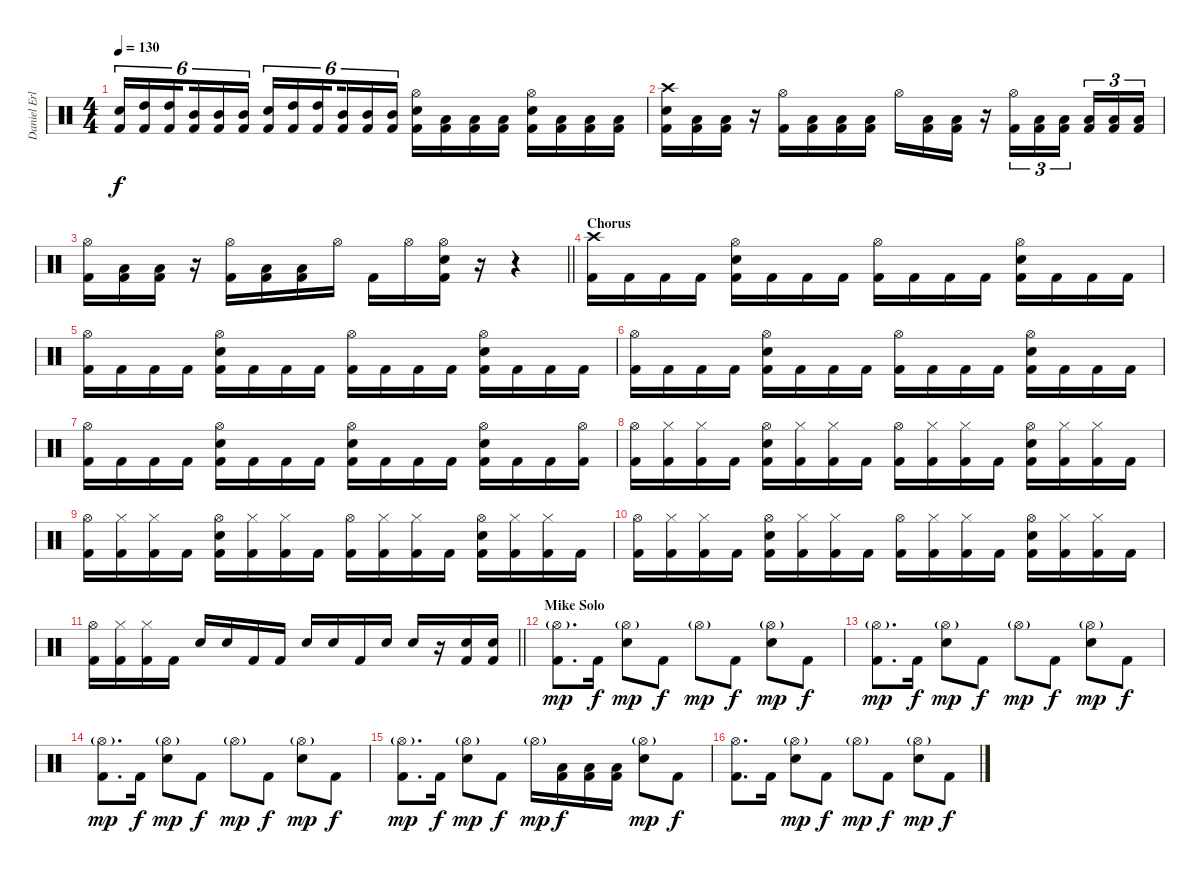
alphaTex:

\track ("Daniel Erlandsson" "Daniel Erl") {instrument percussion}
\staff {score}
\articulation defaults
\ts (4 4)
\tempo 130
\clef neutral
\ks c
("Snare (hit) 2" "Kick (hit) 2").16{tu (6 4) dy f} ("High Tom (hit)" "Kick (hit) 2").16{tu (6 4)} ("High Tom (hit)" "Kick (hit) 2").16{tu (6 4) beam splitsecondary} ("Mid Tom (hit)" "Kick (hit) 2").16{tu (6 4)} ("Mid Tom (hit)" "Kick (hit) 2").16{tu (6 4)} ("Mid Tom (hit)" "Kick (hit) 2").16{tu (6 4)} ("Snare (hit) 2" "Kick (hit) 2").16{tu (6 4)} ("High Tom (hit)" "Kick (hit) 2").16{tu (6 4)} ("High Tom (hit)" "Kick (hit) 2").16{tu (6 4) beam splitsecondary} ("Mid Tom (hit)" "Kick (hit) 2").16{tu (6 4)} ("Mid Tom (hit)" "Kick (hit) 2").16{tu (6 4)} ("Mid Tom (hit)" "Kick (hit) 2").16{tu (6 4)} ("Hi-Hat (open)" "Snare (hit) 2" "Kick (hit) 2").16 ("Low Tom (hit)" "Kick (hit) 2").16 ("Low Tom (hit)" "Kick (hit) 2").16 ("Low Floor Tom (hit)" "Kick (hit) 2").16 ("Hi-Hat (open)" "Snare (hit) 2" "Kick (hit) 2").16 ("Low Tom (hit)" "Kick (hit) 2").16 ("Low Tom (hit)" "Kick (hit) 2").16 ("Low Floor Tom (hit)" "Kick (hit) 2").16 |
("Crash high (hit)" "Snare (hit) 2" "Kick (hit) 2").16 ("Low Floor Tom (hit)" "Kick (hit) 2").16 ("Low Floor Tom (hit)" "Kick (hit) 2").16 r.16 ("Hi-Hat (open)" "Kick (hit) 2").16 ("Low Floor Tom (hit)" "Kick (hit) 2").16 ("Low Floor Tom (hit)" "Kick (hit) 2").16 ("Low Floor Tom (hit)" "Kick (hit) 2").16 "Hi-Hat (open)".16 ("Low Floor Tom (hit)" "Kick (hit) 2").16 ("Low Floor Tom (hit)" "Kick (hit) 2").16 r.16 ("Hi-Hat (open)" "Kick (hit) 2").16{tu (3 2)} ("Low Floor Tom (hit)" "Kick (hit) 2").16{tu (3 2)} ("Low Floor Tom (hit)" "Kick (hit) 2").16{tu (3 2) beam splitsecondary} ("Low Floor Tom (hit)" "Kick (hit) 2").16{tu (3 2)} ("Low Floor Tom (hit)" "Kick (hit) 2").16{tu (3 2)} ("Low Floor Tom (hit)" "Kick (hit) 2").16{tu (3 2)} |
\barLineRight lightlight
("Hi-Hat (open)" "Kick (hit) 2").16 ("Low Floor Tom (hit)" "Kick (hit) 2").16 ("Low Floor Tom (hit)" "Kick (hit) 2").16 r.16 ("Hi-Hat (open)" "Kick (hit) 2").16 ("Low Floor Tom (hit)" "Kick (hit) 2").16 ("Low Floor Tom (hit)" "Kick (hit) 2").16 "Hi-Hat (open)".16 "Kick (hit) 2".16 "Hi-Hat (open)".16 ("Hi-Hat (open)" "Snare (hit) 2" "Kick (hit) 2").16 r.16 r.4 |
\section ("" "Chorus")
("Crash high (hit)" "Kick (hit) 2").16 "Kick (hit) 2".16 "Kick (hit) 2".16 "Kick (hit) 2".16 ("Hi-Hat (open)" "Snare (hit) 2" "Kick (hit) 2").16 "Kick (hit) 2".16 "Kick (hit) 2".16 "Kick (hit) 2".16 ("Hi-Hat (open)" "Kick (hit) 2").16 "Kick (hit) 2".16 "Kick (hit) 2".16 "Kick (hit) 2".16 ("Hi-Hat (open)" "Snare (hit) 2" "Kick (hit) 2").16 "Kick (hit) 2".16 "Kick (hit) 2".16 "Kick (hit) 2".16 |
("Hi-Hat (open)" "Kick (hit) 2").16 "Kick (hit) 2".16 "Kick (hit) 2".16 "Kick (hit) 2".16 ("Hi-Hat (open)" "Snare (hit) 2" "Kick (hit) 2").16 "Kick (hit) 2".16 "Kick (hit) 2".16 "Kick (hit) 2".16 ("Hi-Hat (open)" "Kick (hit) 2").16 "Kick (hit) 2".16 "Kick (hit) 2".16 "Kick (hit) 2".16 ("Hi-Hat (open)" "Snare (hit) 2" "Kick (hit) 2").16 "Kick (hit) 2".16 "Kick (hit) 2".16 "Kick (hit) 2".16 |
("Hi-Hat (open)" "Kick (hit) 2").16 "Kick (hit) 2".16 "Kick (hit) 2".16 "Kick (hit) 2".16 ("Hi-Hat (open)" "Snare (hit) 2" "Kick (hit) 2").16 "Kick (hit) 2".16 "Kick (hit) 2".16 "Kick (hit) 2".16 ("Hi-Hat (open)" "Kick (hit) 2").16 "Kick (hit) 2".16 "Kick (hit) 2".16 "Kick (hit) 2".16 ("Hi-Hat (open)" "Snare (hit) 2" "Kick (hit) 2").16 "Kick (hit) 2".16 "Kick (hit) 2".16 "Kick (hit) 2".16 |
("Hi-Hat (open)" "Kick (hit) 2").16 "Kick (hit) 2".16 "Kick (hit) 2".16 "Kick (hit) 2".16 ("Hi-Hat (open)" "Snare (hit) 2" "Kick (hit) 2").16 "Kick (hit) 2".16 "Kick (hit) 2".16 "Kick (hit) 2".16 ("Hi-Hat (open)" "Snare (hit) 2" "Kick (hit) 2").16 "Kick (hit) 2".16 "Kick (hit) 2".16 "Kick (hit) 2".16 ("Hi-Hat (open)" "Snare (hit) 2" "Kick (hit) 2").16 "Kick (hit) 2".16 "Kick (hit) 2".16 ("Hi-Hat (open)" "Kick (hit) 2").16 |
("Hi-Hat (open)" "Kick (hit) 2").16 ("Hi-Hat (closed)" "Kick (hit) 2").16 ("Hi-Hat (closed)" "Kick (hit) 2").16 "Kick (hit) 2".16 ("Hi-Hat (open)" "Snare (hit) 2" "Kick (hit) 2").16 ("Hi-Hat (closed)" "Kick (hit) 2").16 ("Hi-Hat (closed)" "Kick (hit) 2").16 "Kick (hit) 2".16 ("Hi-Hat (open)" "Kick (hit) 2").16 ("Hi-Hat (closed)" "Kick (hit) 2").16 ("Hi-Hat (closed)" "Kick (hit) 2").16 "Kick (hit) 2".16 ("Hi-Hat (open)" "Snare (hit) 2" "Kick (hit) 2").16 ("Hi-Hat (closed)" "Kick (hit) 2").16 ("Hi-Hat (closed)" "Kick (hit) 2").16 "Kick (hit) 2".16 |
("Hi-Hat (open)" "Kick (hit) 2").16 ("Hi-Hat (closed)" "Kick (hit) 2").16 ("Hi-Hat (closed)" "Kick (hit) 2").16 "Kick (hit) 2".16 ("Hi-Hat (open)" "Snare (hit) 2" "Kick (hit) 2").16 ("Hi-Hat (closed)" "Kick (hit) 2").16 ("Hi-Hat (closed)" "Kick (hit) 2").16 "Kick (hit) 2".16 ("Hi-Hat (open)" "Kick (hit) 2").16 ("Hi-Hat (closed)" "Kick (hit) 2").16 ("Hi-Hat (closed)" "Kick (hit) 2").16 "Kick (hit) 2".16 ("Hi-Hat (open)" "Snare (hit) 2" "Kick (hit) 2").16 ("Hi-Hat (closed)" "Kick (hit) 2").16 ("Hi-Hat (closed)" "Kick (hit) 2").16 "Kick (hit) 2".16 |
("Hi-Hat (open)" "Kick (hit) 2").16 ("Hi-Hat (closed)" "Kick (hit) 2").16 ("Hi-Hat (closed)" "Kick (hit) 2").16 "Kick (hit) 2".16 ("Hi-Hat (open)" "Snare (hit) 2" "Kick (hit) 2").16 ("Hi-Hat (closed)" "Kick (hit) 2").16 ("Hi-Hat (closed)" "Kick (hit) 2").16 "Kick (hit) 2".16 ("Hi-Hat (open)" "Kick (hit) 2").16 ("Hi-Hat (closed)" "Kick (hit) 2").16 ("Hi-Hat (closed)" "Kick (hit) 2").16 "Kick (hit) 2".16 ("Hi-Hat (open)" "Snare (hit) 2" "Kick (hit) 2").16 ("Hi-Hat (closed)" "Kick (hit) 2").16 ("Hi-Hat (closed)" "Kick (hit) 2").16 "Kick (hit) 2".16 |
\barLineRight lightlight
("Hi-Hat (open)" "Kick (hit) 2").16 ("Hi-Hat (closed)" "Kick (hit) 2").16 ("Hi-Hat (closed)" "Kick (hit) 2").16 "Kick (hit) 2".16 "Snare (hit) 2".16 "Snare (hit) 2".16 "Kick (hit) 2".16 "Kick (hit) 2".16 "Snare (hit) 2".16 "Snare (hit) 2".16 "Kick (hit) 2".16 "Snare (hit) 2".16 "Snare (hit) 2".16 r.16 ("Snare (hit) 2" "Kick (hit) 2").16 ("Snare (hit) 2" "Kick (hit) 2").16 |
\section ("" "Mike Solo")
("Hi-Hat (open)"{g} "Kick (hit) 2").8{d dy mp} "Kick (hit) 2".16{dy f} ("Hi-Hat (open)"{g} "Snare (hit) 2").8{dy mp} "Kick (hit) 2".8{dy f} "Hi-Hat (open)"{g}.8{dy mp} "Kick (hit) 2".8{dy f} ("Hi-Hat (open)"{g} "Snare (hit) 2").8{dy mp} "Kick (hit) 2".8{dy f} |
("Hi-Hat (open)"{g} "Kick (hit) 2").8{d dy mp} "Kick (hit) 2".16{dy f} ("Hi-Hat (open)"{g} "Snare (hit) 2").8{dy mp} "Kick (hit) 2".8{dy f} "Hi-Hat (open)"{g}.8{dy mp} "Kick (hit) 2".8{dy f} ("Hi-Hat (open)"{g} "Snare (hit) 2").8{dy mp} "Kick (hit) 2".8{dy f} |
("Hi-Hat (open)"{g} "Kick (hit) 2").8{d dy mp} "Kick (hit) 2".16{dy f} ("Hi-Hat (open)"{g} "Snare (hit) 2").8{dy mp} "Kick (hit) 2".8{dy f} "Hi-Hat (open)"{g}.8{dy mp} "Kick (hit) 2".8{dy f} ("Hi-Hat (open)"{g} "Snare (hit) 2").8{dy mp} "Kick (hit) 2".8{dy f} |
("Hi-Hat (open)"{g} "Kick (hit) 2").8{d dy mp} "Kick (hit) 2".16{dy f} ("Hi-Hat (open)"{g} "Snare (hit) 2").8{dy mp} "Kick (hit) 2".8{dy f} "Hi-Hat (open)"{g}.16{dy mp} ("Low Floor Tom (hit)" "Kick (hit) 2").16{dy f} ("Low Floor Tom (hit)" "Kick (hit) 2").16 ("Low Floor Tom (hit)" "Kick (hit) 2").16 ("Hi-Hat (open)"{g} "Snare (hit) 2").8{dy mp} "Kick (hit) 2".8{dy f} |
("Hi-Hat (open)" "Kick (hit) 2").8{d} "Kick (hit) 2".16 ("Hi-Hat (open)"{g} "Snare (hit) 2").8{dy mp} "Kick (hit) 2".8{dy f} "Hi-Hat (open)"{g}.8{dy mp} "Kick (hit) 2".8{dy f} ("Hi-Hat (open)"{g} "Snare (hit) 2").8{dy mp} "Kick (hit) 2".8{dy f}
